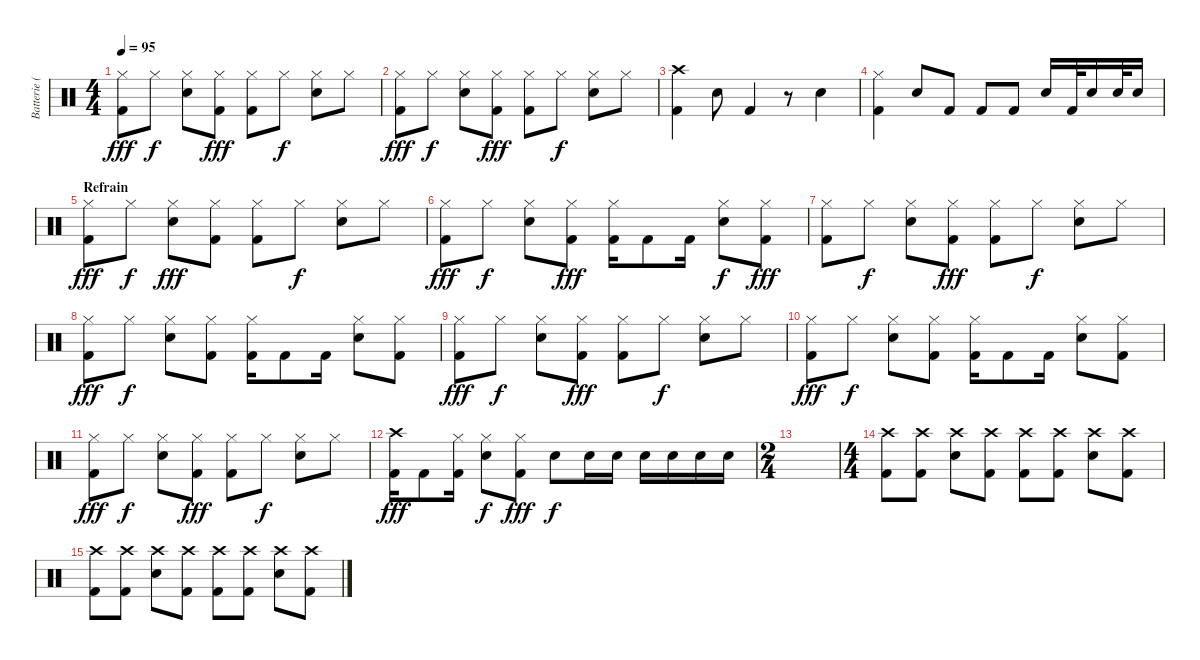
\track ("Batterie (Hervé)" "Batterie (") {instrument percussion}
\staff {score}
\articulation defaults
\ts (4 4)
\tempo 95
\clef neutral
\ks c
("Kick (hit) 2" "Hi-Hat (closed)").8{dy fff} "Hi-Hat (closed)".8{dy f} ("Snare (hit) 2" "Hi-Hat (closed)").8 ("Kick (hit) 2" "Hi-Hat (closed)").8{dy fff} ("Kick (hit) 2" "Hi-Hat (closed)").8 "Hi-Hat (closed)".8{dy f} ("Snare (hit) 2" "Hi-Hat (closed)").8 "Hi-Hat (closed)".8 |
("Kick (hit) 2" "Hi-Hat (closed)").8{dy fff} "Hi-Hat (closed)".8{dy f} ("Snare (hit) 2" "Hi-Hat (closed)").8 ("Kick (hit) 2" "Hi-Hat (closed)").8{dy fff} ("Kick (hit) 2" "Hi-Hat (closed)").8 "Hi-Hat (closed)".8{dy f} ("Snare (hit) 2" "Hi-Hat (closed)").8 "Hi-Hat (closed)".8 |
("Kick (hit) 2" "Crash high (hit)").4 "Snare (hit) 2".8 "Kick (hit) 2".4 r.8 "Snare (hit) 2".4 |
("Kick (hit) 2" "Hi-Hat (closed)").4 "Snare (hit) 2".8 "Kick (hit) 2".8 "Kick (hit) 2".8 "Kick (hit) 2".8 "Snare (hit) 2".16 "Kick (hit) 2".32 "Snare (hit) 2".16 "Snare (hit) 2".32 "Snare (hit) 2".16 |
\section ("" "Refrain")
("Kick (hit) 2" "Hi-Hat (closed)").8{dy fff} "Hi-Hat (closed)".8{dy f} ("Snare (hit) 2" "Hi-Hat (closed)").8{dy fff} ("Kick (hit) 2" "Hi-Hat (closed)").8 ("Kick (hit) 2" "Hi-Hat (closed)").8 "Hi-Hat (closed)".8{dy f} ("Snare (hit) 2" "Hi-Hat (closed)").8 "Hi-Hat (closed)".8 |
("Kick (hit) 2" "Hi-Hat (closed)").8{dy fff} "Hi-Hat (closed)".8{dy f} ("Snare (hit) 2" "Hi-Hat (closed)").8 ("Kick (hit) 2" "Hi-Hat (closed)").8{dy fff} ("Kick (hit) 2" "Hi-Hat (closed)").16 "Kick (hit) 2".8 "Kick (hit) 2".16 ("Snare (hit) 2" "Hi-Hat (closed)").8{dy f} ("Kick (hit) 2" "Hi-Hat (closed)").8{dy fff} |
("Kick (hit) 2" "Hi-Hat (closed)").8 "Hi-Hat (closed)".8{dy f} ("Snare (hit) 2" "Hi-Hat (closed)").8 ("Kick (hit) 2" "Hi-Hat (closed)").8{dy fff} ("Kick (hit) 2" "Hi-Hat (closed)").8 "Hi-Hat (closed)".8{dy f} ("Snare (hit) 2" "Hi-Hat (closed)").8 "Hi-Hat (closed)".8 |
("Kick (hit) 2" "Hi-Hat (closed)").8{dy fff} "Hi-Hat (closed)".8{dy f} ("Snare (hit) 2" "Hi-Hat (closed)").8 ("Kick (hit) 2" "Hi-Hat (closed)").8 ("Kick (hit) 2" "Hi-Hat (closed)").16 "Kick (hit) 2".8 "Kick (hit) 2".16 ("Snare (hit) 2" "Hi-Hat (closed)").8 ("Kick (hit) 2" "Hi-Hat (closed)").8 |
("Kick (hit) 2" "Hi-Hat (closed)").8{dy fff} "Hi-Hat (closed)".8{dy f} ("Snare (hit) 2" "Hi-Hat (closed)").8 ("Kick (hit) 2" "Hi-Hat (closed)").8{dy fff} ("Kick (hit) 2" "Hi-Hat (closed)").8 "Hi-Hat (closed)".8{dy f} ("Snare (hit) 2" "Hi-Hat (closed)").8 "Hi-Hat (closed)".8 |
("Kick (hit) 2" "Hi-Hat (closed)").8{dy fff} "Hi-Hat (closed)".8{dy f} ("Snare (hit) 2" "Hi-Hat (closed)").8 ("Kick (hit) 2" "Hi-Hat (closed)").8 ("Kick (hit) 2" "Hi-Hat (closed)").16 "Kick (hit) 2".8 "Kick (hit) 2".16 ("Snare (hit) 2" "Hi-Hat (closed)").8 ("Kick (hit) 2" "Hi-Hat (closed)").8 |
("Kick (hit) 2" "Hi-Hat (closed)").8{dy fff} "Hi-Hat (closed)".8{dy f} ("Snare (hit) 2" "Hi-Hat (closed)").8 ("Kick (hit) 2" "Hi-Hat (closed)").8{dy fff} ("Kick (hit) 2" "Hi-Hat (closed)").8 "Hi-Hat (closed)".8{dy f} ("Snare (hit) 2" "Hi-Hat (closed)").8 "Hi-Hat (closed)".8 |
("Kick (hit) 2" "Crash high (hit)").16{dy fff} "Kick (hit) 2".8 ("Kick (hit) 2" "Hi-Hat (closed)").16 ("Snare (hit) 2" "Hi-Hat (closed)").8{dy f} ("Kick (hit) 2" "Hi-Hat (closed)").8{dy fff} "Snare (hit) 2".8{dy f} "Snare (hit) 2".16 "Snare (hit) 2".16 "Snare (hit) 2".16 "Snare (hit) 2".16 "Snare (hit) 2".16 "Snare (hit) 2".16 |
\ts (2 4)
|
\ts (4 4)
("Kick (hit) 2" "Crash high (hit)").8 ("Kick (hit) 2" "Crash high (hit)").8 ("Snare (hit) 2" "Crash high (hit)").8 ("Kick (hit) 2" "Crash high (hit)").8 ("Kick (hit) 2" "Crash high (hit)").8 ("Kick (hit) 2" "Crash high (hit)").8 ("Snare (hit) 2" "Crash high (hit)").8 ("Kick (hit) 2" "Crash high (hit)").8 |
("Kick (hit) 2" "Crash high (hit)").8 ("Kick (hit) 2" "Crash high (hit)").8 ("Snare (hit) 2" "Crash high (hit)").8 ("Kick (hit) 2" "Crash high (hit)").8 ("Kick (hit) 2" "Crash high (hit)").8 ("Kick (hit) 2" "Crash high (hit)").8 ("Snare (hit) 2" "Crash high (hit)").8 ("Kick (hit) 2" "Crash high (hit)").8
